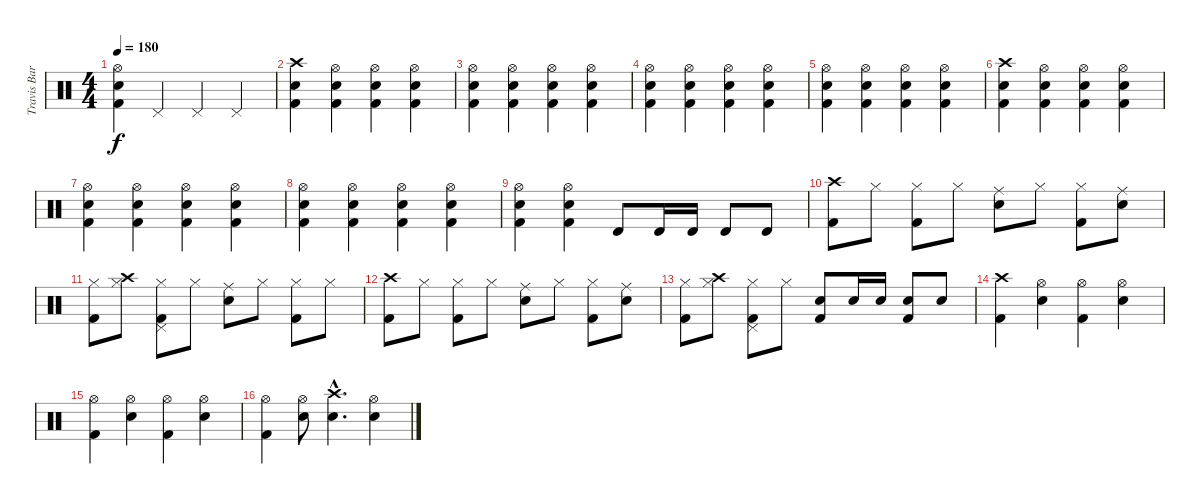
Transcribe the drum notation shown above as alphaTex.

\track ("Travis Barker" "Travis Bar") {instrument percussion}
\staff {score}
\articulation defaults
\ts (4 4)
\tempo 180
\clef neutral
\ks c
("Hi-Hat (open)" "Electric Snare (hit)" "Kick (hit) 2").4{dy f} "Pedal Hi-Hat (hit)".4 "Pedal Hi-Hat (hit)".4 "Pedal Hi-Hat (hit)".4 |
("Crash high (hit)" "Electric Snare (hit)" "Kick (hit) 2").4 ("Hi-Hat (open)" "Electric Snare (hit)" "Kick (hit) 2").4 ("Hi-Hat (open)" "Electric Snare (hit)" "Kick (hit) 2").4 ("Hi-Hat (open)" "Electric Snare (hit)" "Kick (hit) 2").4 |
("Hi-Hat (open)" "Electric Snare (hit)" "Kick (hit) 2").4 ("Hi-Hat (open)" "Electric Snare (hit)" "Kick (hit) 2").4 ("Hi-Hat (open)" "Electric Snare (hit)" "Kick (hit) 2").4 ("Hi-Hat (open)" "Electric Snare (hit)" "Kick (hit) 2").4 |
("Hi-Hat (open)" "Electric Snare (hit)" "Kick (hit) 2").4 ("Hi-Hat (open)" "Electric Snare (hit)" "Kick (hit) 2").4 ("Hi-Hat (open)" "Electric Snare (hit)" "Kick (hit) 2").4 ("Hi-Hat (open)" "Electric Snare (hit)" "Kick (hit) 2").4 |
("Hi-Hat (open)" "Electric Snare (hit)" "Kick (hit) 2").4 ("Hi-Hat (open)" "Electric Snare (hit)" "Kick (hit) 2").4 ("Hi-Hat (open)" "Electric Snare (hit)" "Kick (hit) 2").4 ("Hi-Hat (open)" "Electric Snare (hit)" "Kick (hit) 2").4 |
("Crash high (hit)" "Electric Snare (hit)" "Kick (hit) 2").4 ("Hi-Hat (open)" "Electric Snare (hit)" "Kick (hit) 2").4 ("Hi-Hat (open)" "Electric Snare (hit)" "Kick (hit) 2").4 ("Hi-Hat (open)" "Electric Snare (hit)" "Kick (hit) 2").4 |
("Hi-Hat (open)" "Electric Snare (hit)" "Kick (hit) 2").4 ("Hi-Hat (open)" "Electric Snare (hit)" "Kick (hit) 2").4 ("Hi-Hat (open)" "Electric Snare (hit)" "Kick (hit) 2").4 ("Hi-Hat (open)" "Electric Snare (hit)" "Kick (hit) 2").4 |
("Hi-Hat (open)" "Electric Snare (hit)" "Kick (hit) 2").4 ("Hi-Hat (open)" "Electric Snare (hit)" "Kick (hit) 2").4 ("Hi-Hat (open)" "Electric Snare (hit)" "Kick (hit) 2").4 ("Hi-Hat (open)" "Electric Snare (hit)" "Kick (hit) 2").4 |
("Hi-Hat (open)" "Electric Snare (hit)" "Kick (hit) 2").4 ("Hi-Hat (open)" "Electric Snare (hit)" "Kick (hit) 2").4 "Timbale high (hit)".8 "Timbale high (hit)".16 "Timbale high (hit)".16 "Timbale high (hit)".8 "Timbale high (hit)".8 |
("Crash high (hit)" "Kick (hit) 2").8 "Hi-Hat (closed)".8 ("Hi-Hat (closed)" "Kick (hit) 2").8 "Hi-Hat (closed)".8 ("Ride (middle)" "Electric Snare (hit)").8 "Hi-Hat (closed)".8 ("Hi-Hat (closed)" "Kick (hit) 2").8 ("Ride (middle)" "Electric Snare (hit)").8 |
("Hi-Hat (closed)" "Kick (hit) 2").8 ("Crash high (hit)" "Hi-Hat (closed)").8 ("Hi-Hat (closed)" "Kick (hit) 2" "Pedal Hi-Hat (hit)").8 "Hi-Hat (closed)".8 ("Ride (middle)" "Electric Snare (hit)").8 "Hi-Hat (closed)".8 ("Hi-Hat (closed)" "Kick (hit) 2").8 "Hi-Hat (closed)".8 |
("Crash high (hit)" "Kick (hit) 2").8 "Hi-Hat (closed)".8 ("Hi-Hat (closed)" "Kick (hit) 2").8 "Hi-Hat (closed)".8 ("Ride (middle)" "Electric Snare (hit)").8 "Hi-Hat (closed)".8 ("Hi-Hat (closed)" "Kick (hit) 2").8 ("Ride (middle)" "Electric Snare (hit)").8 |
("Hi-Hat (closed)" "Kick (hit) 2").8 ("Crash high (hit)" "Hi-Hat (closed)").8 ("Hi-Hat (closed)" "Kick (hit) 2" "Pedal Hi-Hat (hit)").8 "Hi-Hat (closed)".8 ("Electric Snare (hit)" "Kick (hit) 2").8 "Electric Snare (hit)".16 "Electric Snare (hit)".16 ("Electric Snare (hit)" "Kick (hit) 2").8 "Electric Snare (hit)".8 |
("Crash high (hit)" "Kick (hit) 2").4 ("Hi-Hat (open)" "Electric Snare (hit)").4 ("Hi-Hat (open)" "Kick (hit) 2").4 ("Hi-Hat (open)" "Electric Snare (hit)").4 |
("Hi-Hat (open)" "Kick (hit) 2").4 ("Hi-Hat (open)" "Electric Snare (hit)").4 ("Hi-Hat (open)" "Kick (hit) 2").4 ("Hi-Hat (open)" "Electric Snare (hit)").4 |
("Hi-Hat (open)" "Kick (hit) 2").4 ("Hi-Hat (open)" "Electric Snare (hit)").8 ("Crash high (hit)"{hac} "Electric Snare (hit)"{hac}).4{d} ("Hi-Hat (open)" "Electric Snare (hit)").4
